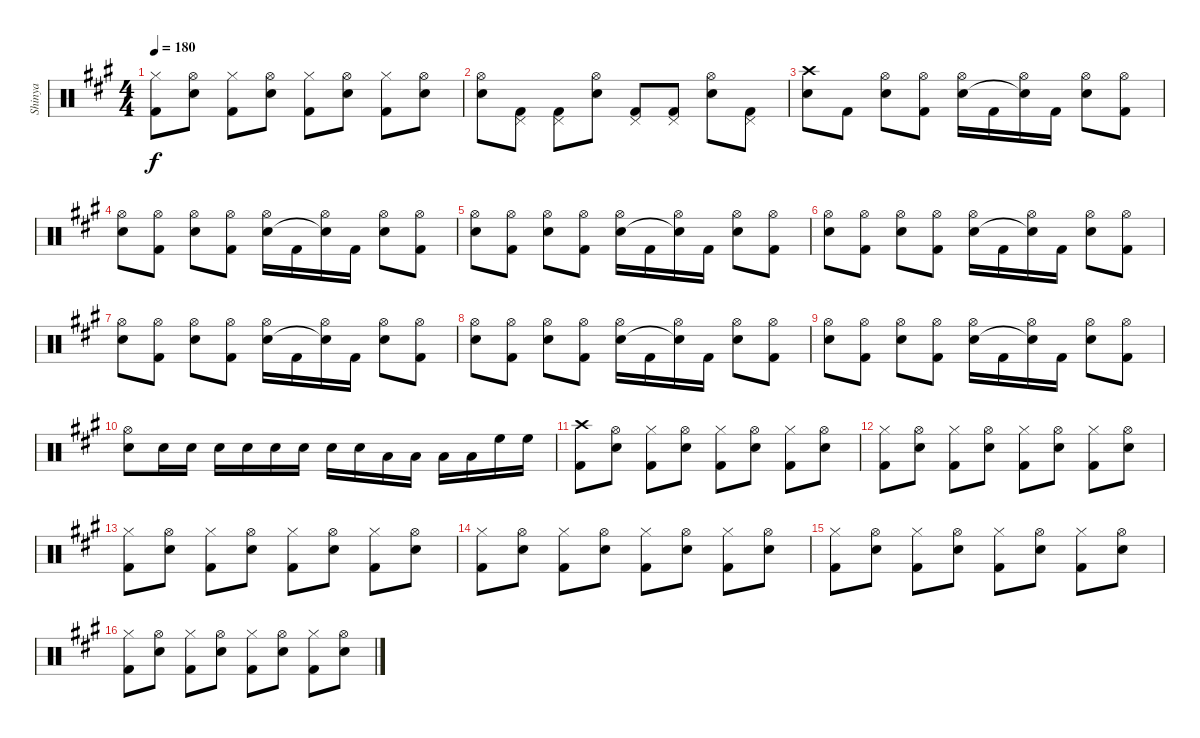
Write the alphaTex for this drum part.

\track ("Shinya" "Shinya") {instrument percussion}
\staff {score}
\articulation defaults
\ts (4 4)
\tempo 180
\clef neutral
\ks a
("Hi-Hat (closed)" "Kick (hit) 2").8{dy f} ("Hi-Hat (open)" "Electric Snare (hit)").8 ("Hi-Hat (closed)" "Kick (hit) 2").8 ("Hi-Hat (open)" "Electric Snare (hit)").8 ("Hi-Hat (closed)" "Kick (hit) 2").8 ("Hi-Hat (open)" "Electric Snare (hit)").8 ("Hi-Hat (closed)" "Kick (hit) 2").8 ("Hi-Hat (open)" "Electric Snare (hit)").8 |
("Hi-Hat (open)" "Electric Snare (hit)").8 ("Pedal Hi-Hat (hit)" "Kick (hit) 2").8 ("Pedal Hi-Hat (hit)" "Kick (hit) 2").8 ("Hi-Hat (open)" "Electric Snare (hit)").8 ("Pedal Hi-Hat (hit)" "Kick (hit) 2").8 ("Pedal Hi-Hat (hit)" "Kick (hit) 2").8 ("Hi-Hat (open)" "Electric Snare (hit)").8 ("Pedal Hi-Hat (hit)" "Kick (hit) 2").8 |
("Crash high (hit)" "Electric Snare (hit)").8 "Kick (hit) 2".8 ("Hi-Hat (open)" "Electric Snare (hit)").8 ("Hi-Hat (open)" "Kick (hit) 2").8 ("Hi-Hat (open)" "Electric Snare (hit)").16 "Kick (hit) 2".16 ("Hi-Hat (open)" "Snare (hit)"{t}).16 "Kick (hit) 2".16 ("Hi-Hat (open)" "Electric Snare (hit)").8 ("Hi-Hat (open)" "Kick (hit) 2").8 |
("Hi-Hat (open)" "Electric Snare (hit)").8 ("Hi-Hat (open)" "Kick (hit) 2").8 ("Hi-Hat (open)" "Electric Snare (hit)").8 ("Hi-Hat (open)" "Kick (hit) 2").8 ("Hi-Hat (open)" "Electric Snare (hit)").16 "Kick (hit) 2".16 ("Hi-Hat (open)" "Snare (hit)"{t}).16 "Kick (hit) 2".16 ("Hi-Hat (open)" "Electric Snare (hit)").8 ("Hi-Hat (open)" "Kick (hit) 2").8 |
("Hi-Hat (open)" "Electric Snare (hit)").8 ("Hi-Hat (open)" "Kick (hit) 2").8 ("Hi-Hat (open)" "Electric Snare (hit)").8 ("Hi-Hat (open)" "Kick (hit) 2").8 ("Hi-Hat (open)" "Electric Snare (hit)").16 "Kick (hit) 2".16 ("Hi-Hat (open)" "Snare (hit)"{t}).16 "Kick (hit) 2".16 ("Hi-Hat (open)" "Electric Snare (hit)").8 ("Hi-Hat (open)" "Kick (hit) 2").8 |
("Hi-Hat (open)" "Electric Snare (hit)").8 ("Hi-Hat (open)" "Kick (hit) 2").8 ("Hi-Hat (open)" "Electric Snare (hit)").8 ("Hi-Hat (open)" "Kick (hit) 2").8 ("Hi-Hat (open)" "Electric Snare (hit)").16 "Kick (hit) 2".16 ("Hi-Hat (open)" "Snare (hit)"{t}).16 "Kick (hit) 2".16 ("Hi-Hat (open)" "Electric Snare (hit)").8 ("Hi-Hat (open)" "Kick (hit) 2").8 |
("Hi-Hat (open)" "Electric Snare (hit)").8 ("Hi-Hat (open)" "Kick (hit) 2").8 ("Hi-Hat (open)" "Electric Snare (hit)").8 ("Hi-Hat (open)" "Kick (hit) 2").8 ("Hi-Hat (open)" "Electric Snare (hit)").16 "Kick (hit) 2".16 ("Hi-Hat (open)" "Snare (hit)"{t}).16 "Kick (hit) 2".16 ("Hi-Hat (open)" "Electric Snare (hit)").8 ("Hi-Hat (open)" "Kick (hit) 2").8 |
("Hi-Hat (open)" "Electric Snare (hit)").8 ("Hi-Hat (open)" "Kick (hit) 2").8 ("Hi-Hat (open)" "Electric Snare (hit)").8 ("Hi-Hat (open)" "Kick (hit) 2").8 ("Hi-Hat (open)" "Electric Snare (hit)").16 "Kick (hit) 2".16 ("Hi-Hat (open)" "Snare (hit)"{t}).16 "Kick (hit) 2".16 ("Hi-Hat (open)" "Electric Snare (hit)").8 ("Hi-Hat (open)" "Kick (hit) 2").8 |
("Hi-Hat (open)" "Electric Snare (hit)").8 ("Hi-Hat (open)" "Kick (hit) 2").8 ("Hi-Hat (open)" "Electric Snare (hit)").8 ("Hi-Hat (open)" "Kick (hit) 2").8 ("Hi-Hat (open)" "Electric Snare (hit)").16 "Kick (hit) 2".16 ("Hi-Hat (open)" "Snare (hit)"{t}).16 "Kick (hit) 2".16 ("Hi-Hat (open)" "Electric Snare (hit)").8 ("Hi-Hat (open)" "Kick (hit) 2").8 |
("Hi-Hat (open)" "Electric Snare (hit)").8 "Electric Snare (hit)".16 "Electric Snare (hit)".16 "Electric Snare (hit)".16 "Electric Snare (hit)".16 "Electric Snare (hit)".16 "Electric Snare (hit)".16 "Electric Snare (hit)".16 "Electric Snare (hit)".16 "Low Tom (hit)".16 "Low Tom (hit)".16 "Low Tom (hit)".16 "Low Tom (hit)".16 "High Floor Tom (hit)".16 "High Floor Tom (hit)".16 |
("Crash high (hit)" "Kick (hit) 2").8 ("Hi-Hat (open)" "Electric Snare (hit)").8 ("Hi-Hat (closed)" "Kick (hit) 2").8 ("Hi-Hat (open)" "Electric Snare (hit)").8 ("Hi-Hat (closed)" "Kick (hit) 2").8 ("Hi-Hat (open)" "Electric Snare (hit)").8 ("Hi-Hat (closed)" "Kick (hit) 2").8 ("Hi-Hat (open)" "Electric Snare (hit)").8 |
("Hi-Hat (closed)" "Kick (hit) 2").8 ("Hi-Hat (open)" "Electric Snare (hit)").8 ("Hi-Hat (closed)" "Kick (hit) 2").8 ("Hi-Hat (open)" "Electric Snare (hit)").8 ("Hi-Hat (closed)" "Kick (hit) 2").8 ("Hi-Hat (open)" "Electric Snare (hit)").8 ("Hi-Hat (closed)" "Kick (hit) 2").8 ("Hi-Hat (open)" "Electric Snare (hit)").8 |
("Hi-Hat (closed)" "Kick (hit) 2").8 ("Hi-Hat (open)" "Electric Snare (hit)").8 ("Hi-Hat (closed)" "Kick (hit) 2").8 ("Hi-Hat (open)" "Electric Snare (hit)").8 ("Hi-Hat (closed)" "Kick (hit) 2").8 ("Hi-Hat (open)" "Electric Snare (hit)").8 ("Hi-Hat (closed)" "Kick (hit) 2").8 ("Hi-Hat (open)" "Electric Snare (hit)").8 |
("Hi-Hat (closed)" "Kick (hit) 2").8 ("Hi-Hat (open)" "Electric Snare (hit)").8 ("Hi-Hat (closed)" "Kick (hit) 2").8 ("Hi-Hat (open)" "Electric Snare (hit)").8 ("Hi-Hat (closed)" "Kick (hit) 2").8 ("Hi-Hat (open)" "Electric Snare (hit)").8 ("Hi-Hat (closed)" "Kick (hit) 2").8 ("Hi-Hat (open)" "Electric Snare (hit)").8 |
("Hi-Hat (closed)" "Kick (hit) 2").8 ("Hi-Hat (open)" "Electric Snare (hit)").8 ("Hi-Hat (closed)" "Kick (hit) 2").8 ("Hi-Hat (open)" "Electric Snare (hit)").8 ("Hi-Hat (closed)" "Kick (hit) 2").8 ("Hi-Hat (open)" "Electric Snare (hit)").8 ("Hi-Hat (closed)" "Kick (hit) 2").8 ("Hi-Hat (open)" "Electric Snare (hit)").8 |
("Hi-Hat (closed)" "Kick (hit) 2").8 ("Hi-Hat (open)" "Electric Snare (hit)").8 ("Hi-Hat (closed)" "Kick (hit) 2").8 ("Hi-Hat (open)" "Electric Snare (hit)").8 ("Hi-Hat (closed)" "Kick (hit) 2").8 ("Hi-Hat (open)" "Electric Snare (hit)").8 ("Hi-Hat (closed)" "Kick (hit) 2").8 ("Hi-Hat (open)" "Electric Snare (hit)").8
